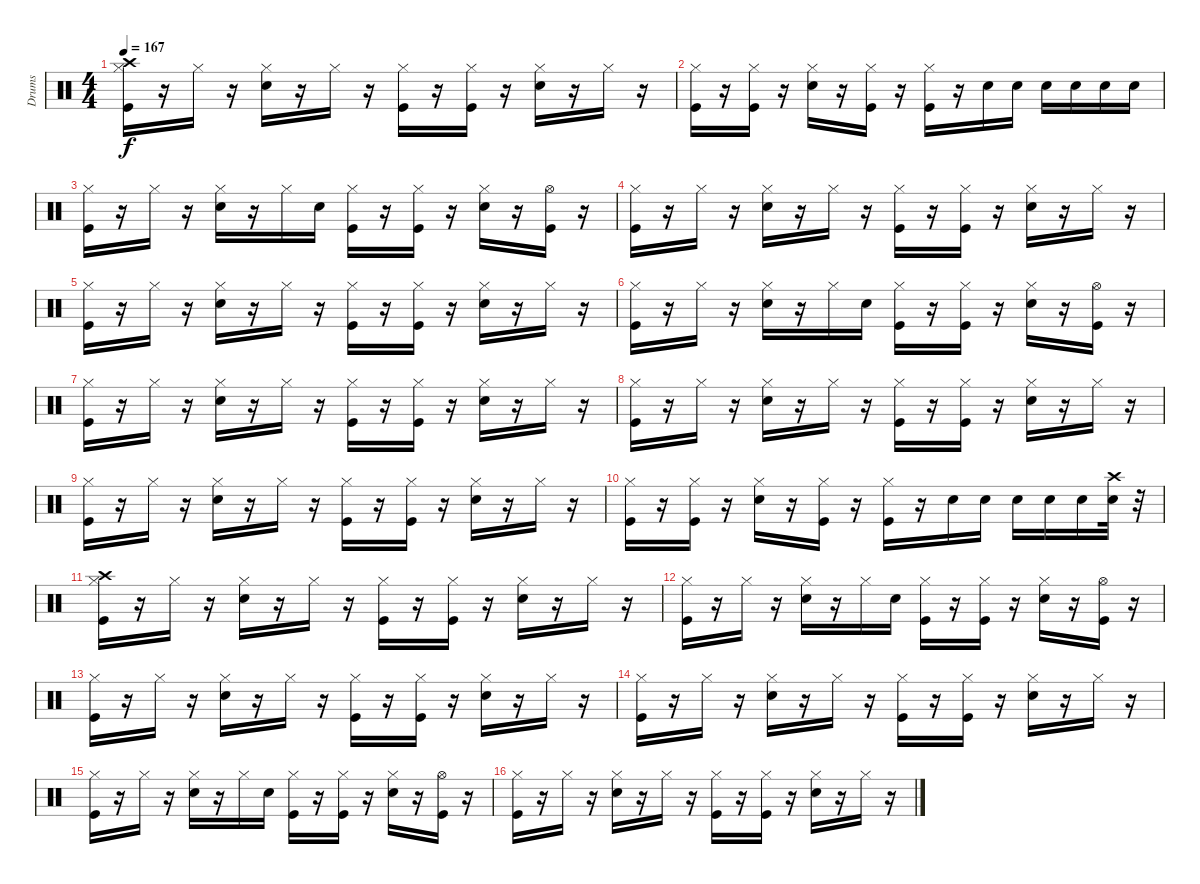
\track ("Drums" "Drums") {instrument percussion}
\staff {score}
\articulation defaults
\ts (4 4)
\tempo 167
\clef neutral
\ks c
("Kick (hit)" "Hi-Hat (closed)" "Crash high (hit)").16{dy f} r.16 "Hi-Hat (closed)".16 r.16 ("Snare (hit) 2" "Hi-Hat (closed)").16 r.16 "Hi-Hat (closed)".16 r.16 ("Kick (hit)" "Hi-Hat (closed)").16 r.16 ("Kick (hit)" "Hi-Hat (closed)").16 r.16 ("Snare (hit) 2" "Hi-Hat (closed)").16 r.16 "Hi-Hat (closed)".16 r.16 |
("Kick (hit)" "Hi-Hat (closed)").16 r.16 ("Kick (hit)" "Hi-Hat (closed)").16 r.16 ("Snare (hit) 2" "Hi-Hat (closed)").16 r.16 ("Kick (hit)" "Hi-Hat (closed)").16 r.16 ("Kick (hit)" "Hi-Hat (closed)").16 r.16 "Snare (hit) 2".16 "Snare (hit) 2".16 "Snare (hit) 2".16 "Snare (hit) 2".16 "Snare (hit) 2".16 "Snare (hit) 2".16 |
("Kick (hit)" "Hi-Hat (closed)").16 r.16 "Hi-Hat (closed)".16 r.16 ("Snare (hit) 2" "Hi-Hat (closed)").16 r.16 "Hi-Hat (closed)".16 "Snare (hit) 2".16 ("Kick (hit)" "Hi-Hat (closed)").16 r.16 ("Kick (hit)" "Hi-Hat (closed)").16 r.16 ("Snare (hit) 2" "Hi-Hat (closed)").16 r.16 ("Kick (hit)" "Hi-Hat (open)").16 r.16 |
("Kick (hit)" "Hi-Hat (closed)").16 r.16 "Hi-Hat (closed)".16 r.16 ("Snare (hit) 2" "Hi-Hat (closed)").16 r.16 "Hi-Hat (closed)".16 r.16 ("Kick (hit)" "Hi-Hat (closed)").16 r.16 ("Kick (hit)" "Hi-Hat (closed)").16 r.16 ("Snare (hit) 2" "Hi-Hat (closed)").16 r.16 "Hi-Hat (closed)".16 r.16 |
("Kick (hit)" "Hi-Hat (closed)").16 r.16 "Hi-Hat (closed)".16 r.16 ("Snare (hit) 2" "Hi-Hat (closed)").16 r.16 "Hi-Hat (closed)".16 r.16 ("Kick (hit)" "Hi-Hat (closed)").16 r.16 ("Kick (hit)" "Hi-Hat (closed)").16 r.16 ("Snare (hit) 2" "Hi-Hat (closed)").16 r.16 "Hi-Hat (closed)".16 r.16 |
("Kick (hit)" "Hi-Hat (closed)").16 r.16 "Hi-Hat (closed)".16 r.16 ("Snare (hit) 2" "Hi-Hat (closed)").16 r.16 "Hi-Hat (closed)".16 "Snare (hit) 2".16 ("Kick (hit)" "Hi-Hat (closed)").16 r.16 ("Kick (hit)" "Hi-Hat (closed)").16 r.16 ("Snare (hit) 2" "Hi-Hat (closed)").16 r.16 ("Kick (hit)" "Hi-Hat (open)").16 r.16 |
("Kick (hit)" "Hi-Hat (closed)").16 r.16 "Hi-Hat (closed)".16 r.16 ("Snare (hit) 2" "Hi-Hat (closed)").16 r.16 "Hi-Hat (closed)".16 r.16 ("Kick (hit)" "Hi-Hat (closed)").16 r.16 ("Kick (hit)" "Hi-Hat (closed)").16 r.16 ("Snare (hit) 2" "Hi-Hat (closed)").16 r.16 "Hi-Hat (closed)".16 r.16 |
("Kick (hit)" "Hi-Hat (closed)").16 r.16 "Hi-Hat (closed)".16 r.16 ("Snare (hit) 2" "Hi-Hat (closed)").16 r.16 "Hi-Hat (closed)".16 r.16 ("Kick (hit)" "Hi-Hat (closed)").16 r.16 ("Kick (hit)" "Hi-Hat (closed)").16 r.16 ("Snare (hit) 2" "Hi-Hat (closed)").16 r.16 "Hi-Hat (closed)".16 r.16 |
("Kick (hit)" "Hi-Hat (closed)").16 r.16 "Hi-Hat (closed)".16 r.16 ("Snare (hit) 2" "Hi-Hat (closed)").16 r.16 "Hi-Hat (closed)".16 r.16 ("Kick (hit)" "Hi-Hat (closed)").16 r.16 ("Kick (hit)" "Hi-Hat (closed)").16 r.16 ("Snare (hit) 2" "Hi-Hat (closed)").16 r.16 "Hi-Hat (closed)".16 r.16 |
("Kick (hit)" "Hi-Hat (closed)").16 r.16 ("Kick (hit)" "Hi-Hat (closed)").16 r.16 ("Snare (hit) 2" "Hi-Hat (closed)").16 r.16 ("Kick (hit)" "Hi-Hat (closed)").16 r.16 ("Kick (hit)" "Hi-Hat (closed)").16 r.16 "Snare (hit) 2".16 "Snare (hit) 2".16 "Snare (hit) 2".16 "Snare (hit) 2".16 "Snare (hit) 2".16 ("Crash high (hit)" "Snare (hit) 2").32 r.32 |
("Kick (hit)" "Hi-Hat (closed)" "Crash high (hit)").16 r.16 "Hi-Hat (closed)".16 r.16 ("Snare (hit) 2" "Hi-Hat (closed)").16 r.16 "Hi-Hat (closed)".16 r.16 ("Kick (hit)" "Hi-Hat (closed)").16 r.16 ("Kick (hit)" "Hi-Hat (closed)").16 r.16 ("Snare (hit) 2" "Hi-Hat (closed)").16 r.16 "Hi-Hat (closed)".16 r.16 |
("Kick (hit)" "Hi-Hat (closed)").16 r.16 "Hi-Hat (closed)".16 r.16 ("Snare (hit) 2" "Hi-Hat (closed)").16 r.16 "Hi-Hat (closed)".16 "Snare (hit) 2".16 ("Kick (hit)" "Hi-Hat (closed)").16 r.16 ("Kick (hit)" "Hi-Hat (closed)").16 r.16 ("Snare (hit) 2" "Hi-Hat (closed)").16 r.16 ("Kick (hit)" "Hi-Hat (open)").16 r.16 |
("Kick (hit)" "Hi-Hat (closed)").16 r.16 "Hi-Hat (closed)".16 r.16 ("Snare (hit) 2" "Hi-Hat (closed)").16 r.16 "Hi-Hat (closed)".16 r.16 ("Kick (hit)" "Hi-Hat (closed)").16 r.16 ("Kick (hit)" "Hi-Hat (closed)").16 r.16 ("Snare (hit) 2" "Hi-Hat (closed)").16 r.16 "Hi-Hat (closed)".16 r.16 |
("Kick (hit)" "Hi-Hat (closed)").16 r.16 "Hi-Hat (closed)".16 r.16 ("Snare (hit) 2" "Hi-Hat (closed)").16 r.16 "Hi-Hat (closed)".16 r.16 ("Kick (hit)" "Hi-Hat (closed)").16 r.16 ("Kick (hit)" "Hi-Hat (closed)").16 r.16 ("Snare (hit) 2" "Hi-Hat (closed)").16 r.16 "Hi-Hat (closed)".16 r.16 |
("Kick (hit)" "Hi-Hat (closed)").16 r.16 "Hi-Hat (closed)".16 r.16 ("Snare (hit) 2" "Hi-Hat (closed)").16 r.16 "Hi-Hat (closed)".16 "Snare (hit) 2".16 ("Kick (hit)" "Hi-Hat (closed)").16 r.16 ("Kick (hit)" "Hi-Hat (closed)").16 r.16 ("Snare (hit) 2" "Hi-Hat (closed)").16 r.16 ("Kick (hit)" "Hi-Hat (open)").16 r.16 |
("Kick (hit)" "Hi-Hat (closed)").16 r.16 "Hi-Hat (closed)".16 r.16 ("Snare (hit) 2" "Hi-Hat (closed)").16 r.16 "Hi-Hat (closed)".16 r.16 ("Kick (hit)" "Hi-Hat (closed)").16 r.16 ("Kick (hit)" "Hi-Hat (closed)").16 r.16 ("Snare (hit) 2" "Hi-Hat (closed)").16 r.16 "Hi-Hat (closed)".16 r.16
